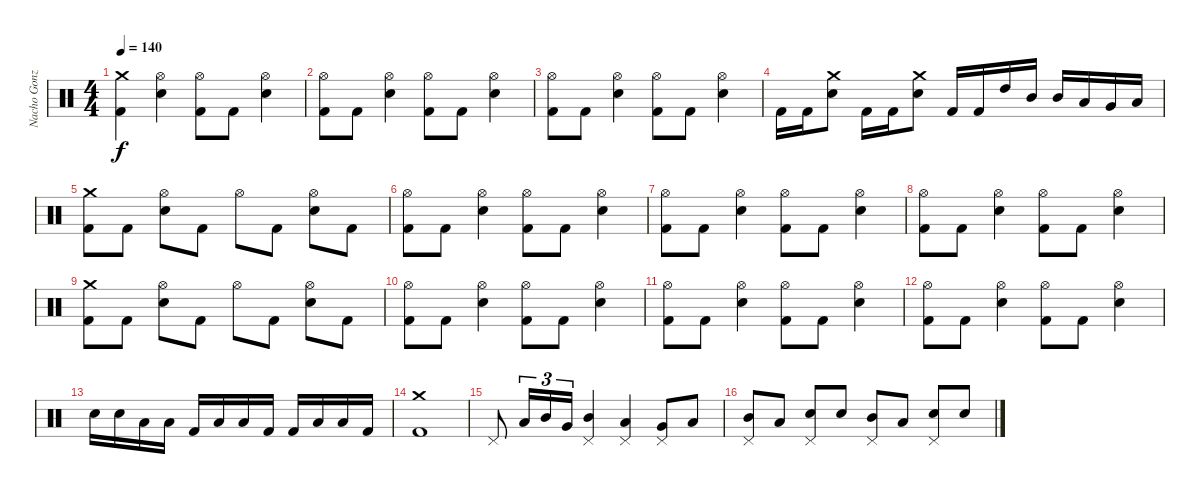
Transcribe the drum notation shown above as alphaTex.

\track ("Nacho Gonzalez" "Nacho Gonz") {instrument percussion}
\staff {score}
\articulation defaults
\ts (4 4)
\tempo 140
\clef neutral
\ks c
("Crash medium (hit)" "Kick (hit) 2").4{dy f} ("Hi-Hat (open)" "Electric Snare (hit)").4 ("Hi-Hat (open)" "Kick (hit) 2").8 "Kick (hit) 2".8 ("Hi-Hat (open)" "Electric Snare (hit)").4 |
("Hi-Hat (open)" "Kick (hit) 2").8 "Kick (hit) 2".8 ("Hi-Hat (open)" "Electric Snare (hit)").4 ("Hi-Hat (open)" "Kick (hit) 2").8 "Kick (hit) 2".8 ("Hi-Hat (open)" "Electric Snare (hit)").4 |
("Hi-Hat (open)" "Kick (hit) 2").8 "Kick (hit) 2".8 ("Hi-Hat (open)" "Electric Snare (hit)").4 ("Hi-Hat (open)" "Kick (hit) 2").8 "Kick (hit) 2".8 ("Hi-Hat (open)" "Electric Snare (hit)").4 |
"Kick (hit) 2".16 "Kick (hit) 2".16 ("Crash medium (hit)" "Electric Snare (hit)").8 "Kick (hit) 2".16 "Kick (hit) 2".16 ("Crash medium (hit)" "Electric Snare (hit)").8 "Kick (hit) 2".16 "Kick (hit) 2".16 "High Tom (hit)".16 "Mid Tom (hit)".16 "Mid Tom (hit)".16 "Low Tom (hit)".16 "Very Low Tom (hit)".16 "Low Floor Tom (hit)".16 |
("Crash medium (hit)" "Kick (hit) 2").8 "Kick (hit) 2".8 ("Hi-Hat (open)" "Electric Snare (hit)").8 "Kick (hit) 2".8 "Hi-Hat (open)".8 "Kick (hit) 2".8 ("Hi-Hat (open)" "Electric Snare (hit)").8 "Kick (hit) 2".8 |
("Hi-Hat (open)" "Kick (hit) 2").8 "Kick (hit) 2".8 ("Hi-Hat (open)" "Electric Snare (hit)").4 ("Hi-Hat (open)" "Kick (hit) 2").8 "Kick (hit) 2".8 ("Hi-Hat (open)" "Electric Snare (hit)").4 |
("Hi-Hat (open)" "Kick (hit) 2").8 "Kick (hit) 2".8 ("Hi-Hat (open)" "Electric Snare (hit)").4 ("Hi-Hat (open)" "Kick (hit) 2").8 "Kick (hit) 2".8 ("Hi-Hat (open)" "Electric Snare (hit)").4 |
("Hi-Hat (open)" "Kick (hit) 2").8 "Kick (hit) 2".8 ("Hi-Hat (open)" "Electric Snare (hit)").4 ("Hi-Hat (open)" "Kick (hit) 2").8 "Kick (hit) 2".8 ("Hi-Hat (open)" "Electric Snare (hit)").4 |
("Crash medium (hit)" "Kick (hit) 2").8 "Kick (hit) 2".8 ("Hi-Hat (open)" "Electric Snare (hit)").8 "Kick (hit) 2".8 "Hi-Hat (open)".8 "Kick (hit) 2".8 ("Hi-Hat (open)" "Electric Snare (hit)").8 "Kick (hit) 2".8 |
("Hi-Hat (open)" "Kick (hit) 2").8 "Kick (hit) 2".8 ("Hi-Hat (open)" "Electric Snare (hit)").4 ("Hi-Hat (open)" "Kick (hit) 2").8 "Kick (hit) 2".8 ("Hi-Hat (open)" "Electric Snare (hit)").4 |
("Hi-Hat (open)" "Kick (hit) 2").8 "Kick (hit) 2".8 ("Hi-Hat (open)" "Electric Snare (hit)").4 ("Hi-Hat (open)" "Kick (hit) 2").8 "Kick (hit) 2".8 ("Hi-Hat (open)" "Electric Snare (hit)").4 |
("Hi-Hat (open)" "Kick (hit) 2").8 "Kick (hit) 2".8 ("Hi-Hat (open)" "Electric Snare (hit)").4 ("Hi-Hat (open)" "Kick (hit) 2").8 "Kick (hit) 2".8 ("Hi-Hat (open)" "Electric Snare (hit)").4 |
"Electric Snare (hit)".16 "Electric Snare (hit)".16 "Low Tom (hit)".16 "Low Tom (hit)".16 "Kick (hit) 2".16 "Low Tom (hit)".16 "Low Tom (hit)".16 "Kick (hit) 2".16 "Kick (hit) 2".16 "Low Tom (hit)".16 "Low Tom (hit)".16 "Kick (hit) 2".16 |
("Crash medium (hit)" "Kick (hit) 2").1 |
"Pedal Hi-Hat (hit)".8 "Low Tom (hit)".16{tu (3 2)} "Mid Tom (hit)".16{tu (3 2)} "Very Low Tom (hit)".16{tu (3 2)} ("Pedal Hi-Hat (hit)" "Mid Tom (hit)").4 ("Pedal Hi-Hat (hit)" "Low Tom (hit)").4 ("Pedal Hi-Hat (hit)" "Very Low Tom (hit)").8 "Low Floor Tom (hit)".8 |
("Pedal Hi-Hat (hit)" "Mid Tom (hit)").8 "Low Tom (hit)".8 ("Pedal Hi-Hat (hit)" "Electric Snare (hit)").8 "Electric Snare (hit)".8 ("Pedal Hi-Hat (hit)" "Mid Tom (hit)").8 "Low Tom (hit)".8 ("Pedal Hi-Hat (hit)" "Electric Snare (hit)").8 "Electric Snare (hit)".8
